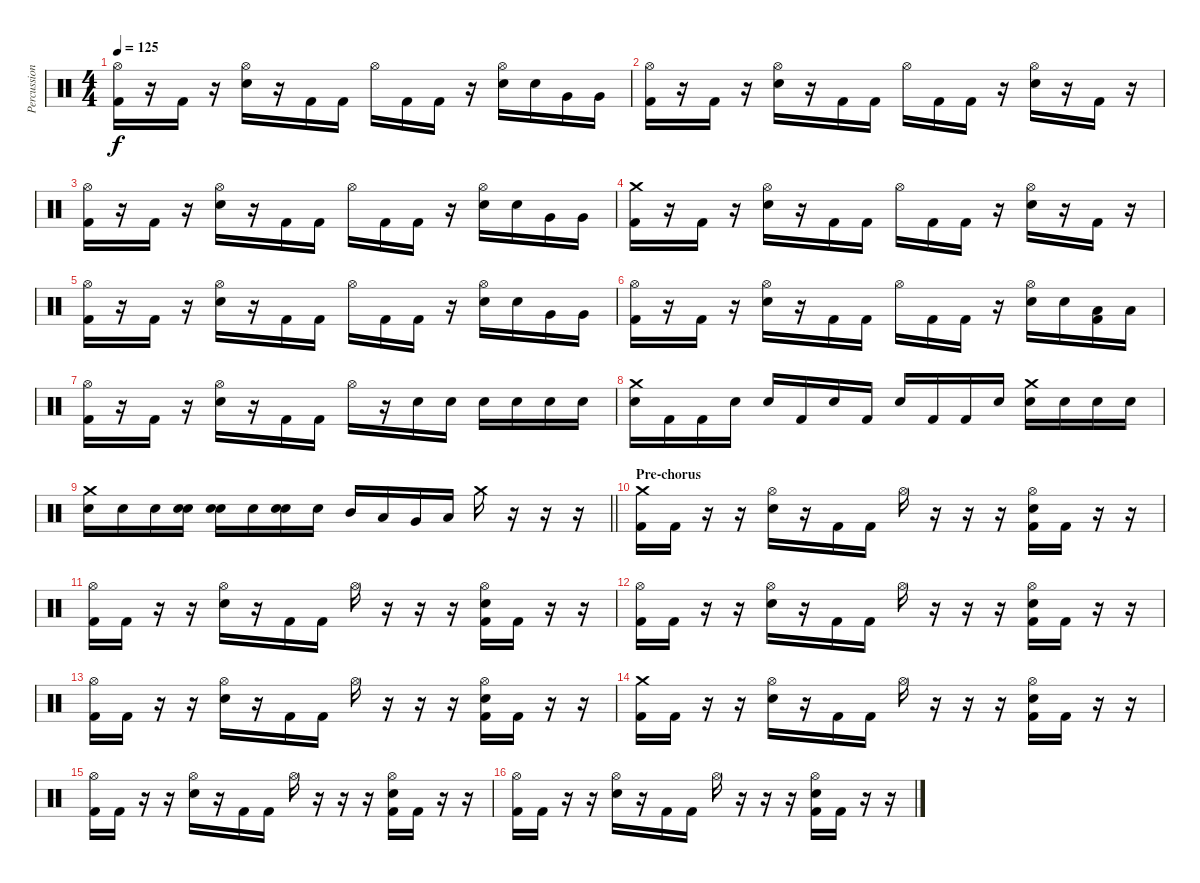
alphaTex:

\track ("Percussion" "Percussion") {instrument percussion}
\staff {score}
\articulation defaults
\ts (4 4)
\tempo 125
\clef neutral
\ks c
("Hi-Hat (open)" "Kick (hit) 2").16{dy f} r.16 "Kick (hit) 2".16 r.16 ("Hi-Hat (open)" "Electric Snare (hit)").16 r.16 "Kick (hit) 2".16 "Kick (hit) 2".16 "Hi-Hat (open)".16 "Kick (hit) 2".16 "Kick (hit) 2".16 r.16 ("Hi-Hat (open)" "Electric Snare (hit)").16 "Electric Snare (hit)".16 "Very Low Tom (hit)".16 "Very Low Tom (hit)".16 |
("Hi-Hat (open)" "Kick (hit) 2").16 r.16 "Kick (hit) 2".16 r.16 ("Hi-Hat (open)" "Electric Snare (hit)").16 r.16 "Kick (hit) 2".16 "Kick (hit) 2".16 "Hi-Hat (open)".16 "Kick (hit) 2".16 "Kick (hit) 2".16 r.16 ("Hi-Hat (open)" "Electric Snare (hit)").16 r.16 "Kick (hit) 2".16 r.16 |
("Hi-Hat (open)" "Kick (hit) 2").16 r.16 "Kick (hit) 2".16 r.16 ("Hi-Hat (open)" "Electric Snare (hit)").16 r.16 "Kick (hit) 2".16 "Kick (hit) 2".16 "Hi-Hat (open)".16 "Kick (hit) 2".16 "Kick (hit) 2".16 r.16 ("Hi-Hat (open)" "Electric Snare (hit)").16 "Electric Snare (hit)".16 "Very Low Tom (hit)".16 "Very Low Tom (hit)".16 |
("Crash medium (hit)" "Kick (hit) 2").16 r.16 "Kick (hit) 2".16 r.16 ("Hi-Hat (open)" "Electric Snare (hit)").16 r.16 "Kick (hit) 2".16 "Kick (hit) 2".16 "Hi-Hat (open)".16 "Kick (hit) 2".16 "Kick (hit) 2".16 r.16 ("Hi-Hat (open)" "Electric Snare (hit)").16 r.16 "Kick (hit) 2".16 r.16 |
("Hi-Hat (open)" "Kick (hit) 2").16 r.16 "Kick (hit) 2".16 r.16 ("Hi-Hat (open)" "Electric Snare (hit)").16 r.16 "Kick (hit) 2".16 "Kick (hit) 2".16 "Hi-Hat (open)".16 "Kick (hit) 2".16 "Kick (hit) 2".16 r.16 ("Hi-Hat (open)" "Electric Snare (hit)").16 "Electric Snare (hit)".16 "Very Low Tom (hit)".16 "Very Low Tom (hit)".16 |
("Hi-Hat (open)" "Kick (hit) 2").16 r.16 "Kick (hit) 2".16 r.16 ("Hi-Hat (open)" "Electric Snare (hit)").16 r.16 "Kick (hit) 2".16 "Kick (hit) 2".16 "Hi-Hat (open)".16 "Kick (hit) 2".16 "Kick (hit) 2".16 r.16 ("Hi-Hat (open)" "Electric Snare (hit)").16 "Electric Snare (hit)".16 ("Low Tom (hit)" "Kick (hit) 2").16 "Low Tom (hit)".16 |
("Hi-Hat (open)" "Kick (hit) 2").16 r.16 "Kick (hit) 2".16 r.16 ("Hi-Hat (open)" "Electric Snare (hit)").16 r.16 "Kick (hit) 2".16 "Kick (hit) 2".16 "Hi-Hat (open)".16 r.16 "Electric Snare (hit)".16 "Electric Snare (hit)".16 "Electric Snare (hit)".16 "Electric Snare (hit)".16 "Electric Snare (hit)".16 "Electric Snare (hit)".16 |
("Crash medium (hit)" "Electric Snare (hit)").16 "Kick (hit) 2".16 "Kick (hit) 2".16 "Electric Snare (hit)".16 "Electric Snare (hit)".16 "Kick (hit) 2".16 "Electric Snare (hit)".16 "Kick (hit) 2".16 "Electric Snare (hit)".16 "Kick (hit) 2".16 "Kick (hit) 2".16 "Electric Snare (hit)".16 ("Crash medium (hit)" "Electric Snare (hit)").16 "Electric Snare (hit)".16 "Electric Snare (hit)".16 "Electric Snare (hit)".16 |
\barLineRight lightlight
("Crash medium (hit)" "Electric Snare (hit)").16 "Electric Snare (hit)".16 "Electric Snare (hit)".16 ("Electric Snare (hit)" "Electric Snare (hit)").16 ("Electric Snare (hit)" "Electric Snare (hit)").16 "Electric Snare (hit)".16 ("Electric Snare (hit)" "Electric Snare (hit)").16 "Electric Snare (hit)".16 "Mid Tom (hit)".16 "Low Tom (hit)".16 "Very Low Tom (hit)".16 "Low Floor Tom (hit)".16 "Crash medium (hit)".16 r.16 r.16 r.16 |
\section ("" "Pre-chorus")
("Crash medium (hit)" "Kick (hit) 2").16 "Kick (hit) 2".16 r.16 r.16 ("Hi-Hat (open)" "Electric Snare (hit)").16 r.16 "Kick (hit) 2".16 "Kick (hit) 2".16 "Hi-Hat (open)".16 r.16 r.16 r.16 ("Hi-Hat (open)" "Electric Snare (hit)" "Kick (hit) 2").16 "Kick (hit) 2".16 r.16 r.16 |
("Hi-Hat (open)" "Kick (hit) 2").16 "Kick (hit) 2".16 r.16 r.16 ("Hi-Hat (open)" "Electric Snare (hit)").16 r.16 "Kick (hit) 2".16 "Kick (hit) 2".16 "Hi-Hat (open)".16 r.16 r.16 r.16 ("Hi-Hat (open)" "Electric Snare (hit)" "Kick (hit) 2").16 "Kick (hit) 2".16 r.16 r.16 |
("Hi-Hat (open)" "Kick (hit) 2").16 "Kick (hit) 2".16 r.16 r.16 ("Hi-Hat (open)" "Electric Snare (hit)").16 r.16 "Kick (hit) 2".16 "Kick (hit) 2".16 "Hi-Hat (open)".16 r.16 r.16 r.16 ("Hi-Hat (open)" "Electric Snare (hit)" "Kick (hit) 2").16 "Kick (hit) 2".16 r.16 r.16 |
("Hi-Hat (open)" "Kick (hit) 2").16 "Kick (hit) 2".16 r.16 r.16 ("Hi-Hat (open)" "Electric Snare (hit)").16 r.16 "Kick (hit) 2".16 "Kick (hit) 2".16 "Hi-Hat (open)".16 r.16 r.16 r.16 ("Hi-Hat (open)" "Electric Snare (hit)" "Kick (hit) 2").16 "Kick (hit) 2".16 r.16 r.16 |
("Crash medium (hit)" "Kick (hit) 2").16 "Kick (hit) 2".16 r.16 r.16 ("Hi-Hat (open)" "Electric Snare (hit)").16 r.16 "Kick (hit) 2".16 "Kick (hit) 2".16 "Hi-Hat (open)".16 r.16 r.16 r.16 ("Hi-Hat (open)" "Electric Snare (hit)" "Kick (hit) 2").16 "Kick (hit) 2".16 r.16 r.16 |
("Hi-Hat (open)" "Kick (hit) 2").16 "Kick (hit) 2".16 r.16 r.16 ("Hi-Hat (open)" "Electric Snare (hit)").16 r.16 "Kick (hit) 2".16 "Kick (hit) 2".16 "Hi-Hat (open)".16 r.16 r.16 r.16 ("Hi-Hat (open)" "Electric Snare (hit)" "Kick (hit) 2").16 "Kick (hit) 2".16 r.16 r.16 |
("Hi-Hat (open)" "Kick (hit) 2").16 "Kick (hit) 2".16 r.16 r.16 ("Hi-Hat (open)" "Electric Snare (hit)").16 r.16 "Kick (hit) 2".16 "Kick (hit) 2".16 "Hi-Hat (open)".16 r.16 r.16 r.16 ("Hi-Hat (open)" "Electric Snare (hit)" "Kick (hit) 2").16 "Kick (hit) 2".16 r.16 r.16
